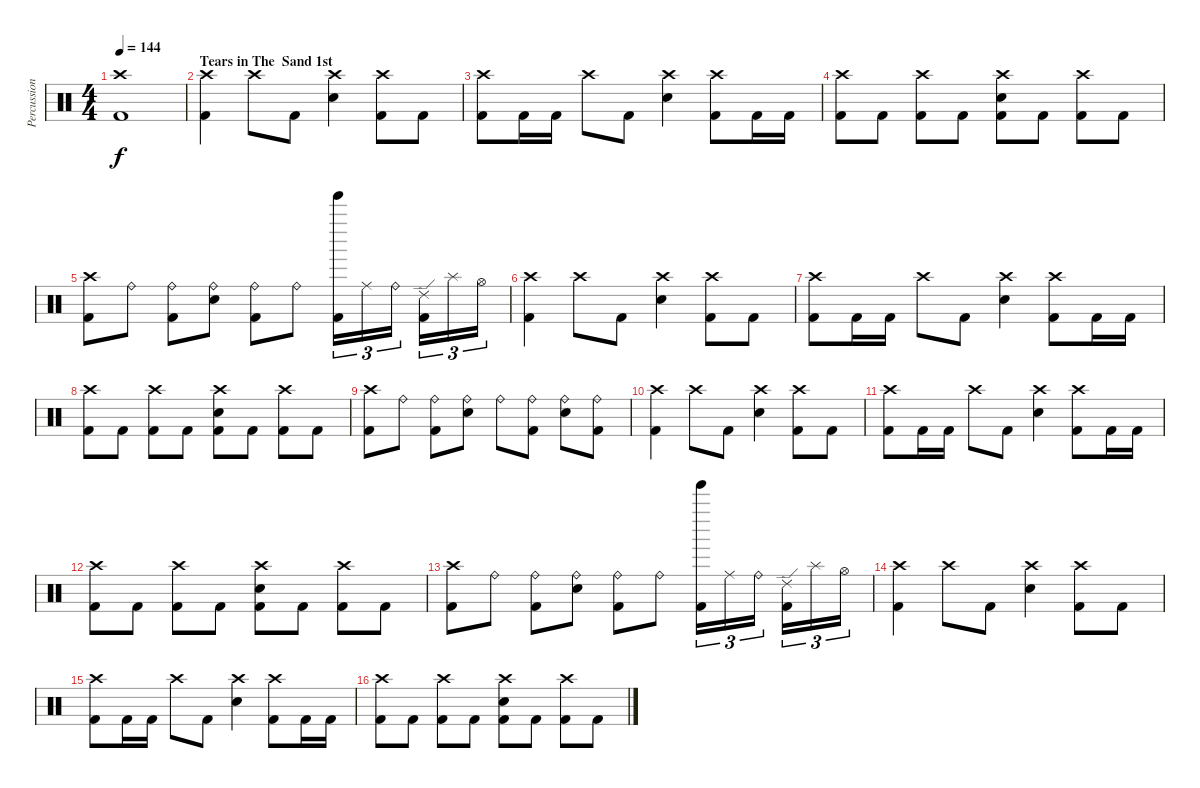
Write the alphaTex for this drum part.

\track ("Percussion" "Percussion") {instrument percussion}
\staff {score}
\articulation defaults
\ts (4 4)
\tempo 144
\clef neutral
\ks c
("Crash high (hit)" "Kick (hit) 2").1{dy f} |
\section ("" "Tears in The  Sand 1st")
("Crash high (hit)" "Kick (hit) 2").4 "Crash high (hit)".8 "Kick (hit) 2".8 ("Crash high (hit)" "Electric Snare (hit)").4 ("Crash high (hit)" "Kick (hit) 2").8 "Kick (hit) 2".8 |
("Crash high (hit)" "Kick (hit) 2").8 "Kick (hit) 2".16 "Kick (hit) 2".16 "Crash high (hit)".8 "Kick (hit) 2".8 ("Crash high (hit)" "Electric Snare (hit)").4 ("Crash high (hit)" "Kick (hit) 2").8 "Kick (hit) 2".16 "Kick (hit) 2".16 |
("Crash high (hit)" "Kick (hit) 2").8 "Kick (hit) 2".8 ("Crash high (hit)" "Kick (hit) 2").8 "Kick (hit) 2".8 ("Crash high (hit)" "Electric Snare (hit)" "Kick (hit) 2").8 "Kick (hit) 2".8 ("Crash high (hit)" "Kick (hit) 2").8 "Kick (hit) 2".8 |
("Crash high (hit)" "Kick (hit) 2").8 "Ride (bell)".8 ("Ride (bell)" "Kick (hit) 2").8 ("Ride (bell)" "Electric Snare (hit)").8 ("Ride (bell)" "Kick (hit) 2").8 "Ride (bell)".8 ("Tinkle Bell (hit)" "Kick (hit) 2").16{tu (3 2)} "Ride (middle)".16{tu (3 2)} "Ride (bell)".16{tu (3 2)} ("Ride (edge) 2" "Kick (hit) 2").16{tu (3 2)} "Splash (hit)".16{tu (3 2)} "Hi-Hat (open)".16{tu (3 2)} |
("Crash high (hit)" "Kick (hit) 2").4 "Crash high (hit)".8 "Kick (hit) 2".8 ("Crash high (hit)" "Electric Snare (hit)").4 ("Crash high (hit)" "Kick (hit) 2").8 "Kick (hit) 2".8 |
("Crash high (hit)" "Kick (hit) 2").8 "Kick (hit) 2".16 "Kick (hit) 2".16 "Crash high (hit)".8 "Kick (hit) 2".8 ("Crash high (hit)" "Electric Snare (hit)").4 ("Crash high (hit)" "Kick (hit) 2").8 "Kick (hit) 2".16 "Kick (hit) 2".16 |
("Crash high (hit)" "Kick (hit) 2").8 "Kick (hit) 2".8 ("Crash high (hit)" "Kick (hit) 2").8 "Kick (hit) 2".8 ("Crash high (hit)" "Electric Snare (hit)" "Kick (hit) 2").8 "Kick (hit) 2".8 ("Crash high (hit)" "Kick (hit) 2").8 "Kick (hit) 2".8 |
("Crash high (hit)" "Kick (hit) 2").8 "Ride (bell)".8 ("Ride (bell)" "Kick (hit) 2").8 ("Ride (bell)" "Electric Snare (hit)").8 "Ride (bell)".8 ("Ride (bell)" "Kick (hit) 2").8 ("Ride (bell)" "Electric Snare (hit)").8 ("Ride (bell)" "Kick (hit) 2").8 |
("Crash high (hit)" "Kick (hit) 2").4 "Crash high (hit)".8 "Kick (hit) 2".8 ("Crash high (hit)" "Electric Snare (hit)").4 ("Crash high (hit)" "Kick (hit) 2").8 "Kick (hit) 2".8 |
("Crash high (hit)" "Kick (hit) 2").8 "Kick (hit) 2".16 "Kick (hit) 2".16 "Crash high (hit)".8 "Kick (hit) 2".8 ("Crash high (hit)" "Electric Snare (hit)").4 ("Crash high (hit)" "Kick (hit) 2").8 "Kick (hit) 2".16 "Kick (hit) 2".16 |
("Crash high (hit)" "Kick (hit) 2").8 "Kick (hit) 2".8 ("Crash high (hit)" "Kick (hit) 2").8 "Kick (hit) 2".8 ("Crash high (hit)" "Electric Snare (hit)" "Kick (hit) 2").8 "Kick (hit) 2".8 ("Crash high (hit)" "Kick (hit) 2").8 "Kick (hit) 2".8 |
("Crash high (hit)" "Kick (hit) 2").8 "Ride (bell)".8 ("Ride (bell)" "Kick (hit) 2").8 ("Ride (bell)" "Electric Snare (hit)").8 ("Ride (bell)" "Kick (hit) 2").8 "Ride (bell)".8 ("Tinkle Bell (hit)" "Kick (hit) 2").16{tu (3 2)} "Ride (middle)".16{tu (3 2)} "Ride (bell)".16{tu (3 2)} ("Ride (edge) 2" "Kick (hit) 2").16{tu (3 2)} "Splash (hit)".16{tu (3 2)} "Hi-Hat (open)".16{tu (3 2)} |
("Crash high (hit)" "Kick (hit) 2").4 "Crash high (hit)".8 "Kick (hit) 2".8 ("Crash high (hit)" "Electric Snare (hit)").4 ("Crash high (hit)" "Kick (hit) 2").8 "Kick (hit) 2".8 |
("Crash high (hit)" "Kick (hit) 2").8 "Kick (hit) 2".16 "Kick (hit) 2".16 "Crash high (hit)".8 "Kick (hit) 2".8 ("Crash high (hit)" "Electric Snare (hit)").4 ("Crash high (hit)" "Kick (hit) 2").8 "Kick (hit) 2".16 "Kick (hit) 2".16 |
("Crash high (hit)" "Kick (hit) 2").8 "Kick (hit) 2".8 ("Crash high (hit)" "Kick (hit) 2").8 "Kick (hit) 2".8 ("Crash high (hit)" "Electric Snare (hit)" "Kick (hit) 2").8 "Kick (hit) 2".8 ("Crash high (hit)" "Kick (hit) 2").8 "Kick (hit) 2".8
